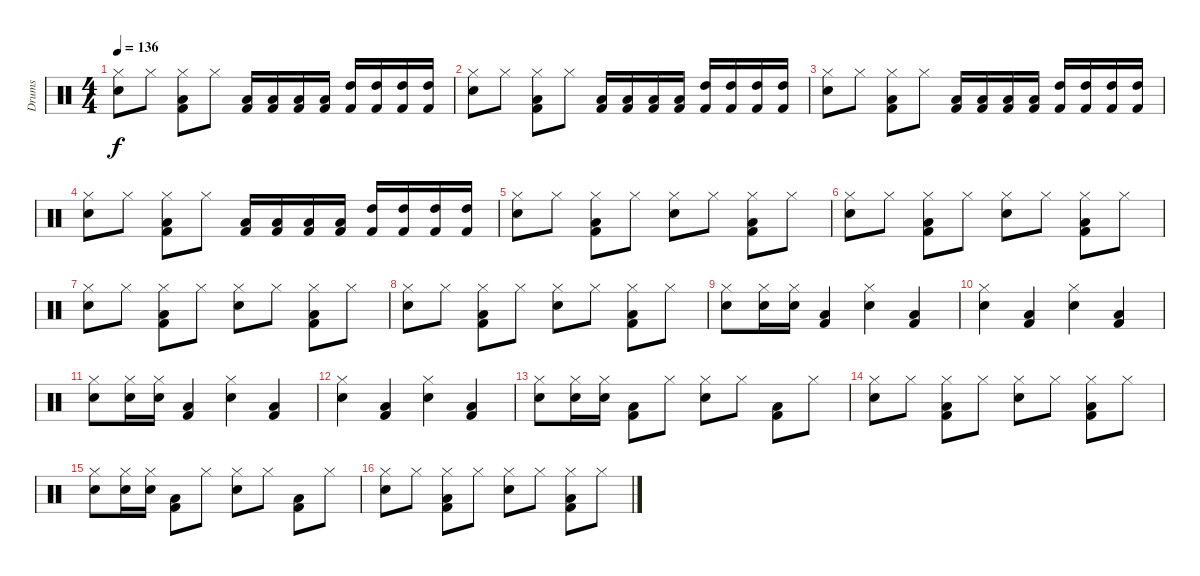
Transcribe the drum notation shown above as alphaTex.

\track ("Drums" "Drums") {instrument percussion}
\staff {score}
\articulation defaults
\ts (4 4)
\tempo 136
\clef neutral
\ks c
("Hi-Hat (closed)" "Snare (hit) 2").8{dy f} "Hi-Hat (closed)".8 ("Kick (hit) 2" "Low Floor Tom (hit)" "Hi-Hat (closed)").8 "Hi-Hat (closed)".8 ("Kick (hit) 2" "Low Floor Tom (hit)").16 ("Kick (hit) 2" "Low Floor Tom (hit)").16 ("Kick (hit) 2" "Low Floor Tom (hit)").16 ("Kick (hit) 2" "Low Floor Tom (hit)").16 ("Kick (hit) 2" "High Tom (hit)").16 ("Kick (hit) 2" "High Tom (hit)").16 ("Kick (hit) 2" "High Tom (hit)").16 ("Kick (hit) 2" "High Tom (hit)").16 |
("Hi-Hat (closed)" "Snare (hit) 2").8 "Hi-Hat (closed)".8 ("Kick (hit) 2" "Low Floor Tom (hit)" "Hi-Hat (closed)").8 "Hi-Hat (closed)".8 ("Kick (hit) 2" "Low Floor Tom (hit)").16 ("Kick (hit) 2" "Low Floor Tom (hit)").16 ("Kick (hit) 2" "Low Floor Tom (hit)").16 ("Kick (hit) 2" "Low Floor Tom (hit)").16 ("Kick (hit) 2" "High Tom (hit)").16 ("Kick (hit) 2" "High Tom (hit)").16 ("Kick (hit) 2" "High Tom (hit)").16 ("Kick (hit) 2" "High Tom (hit)").16 |
("Hi-Hat (closed)" "Snare (hit) 2").8 "Hi-Hat (closed)".8 ("Kick (hit) 2" "Low Floor Tom (hit)" "Hi-Hat (closed)").8 "Hi-Hat (closed)".8 ("Kick (hit) 2" "Low Floor Tom (hit)").16 ("Kick (hit) 2" "Low Floor Tom (hit)").16 ("Kick (hit) 2" "Low Floor Tom (hit)").16 ("Kick (hit) 2" "Low Floor Tom (hit)").16 ("Kick (hit) 2" "High Tom (hit)").16 ("Kick (hit) 2" "High Tom (hit)").16 ("Kick (hit) 2" "High Tom (hit)").16 ("Kick (hit) 2" "High Tom (hit)").16 |
("Hi-Hat (closed)" "Snare (hit) 2").8 "Hi-Hat (closed)".8 ("Kick (hit) 2" "Low Floor Tom (hit)" "Hi-Hat (closed)").8 "Hi-Hat (closed)".8 ("Kick (hit) 2" "Low Floor Tom (hit)").16 ("Kick (hit) 2" "Low Floor Tom (hit)").16 ("Kick (hit) 2" "Low Floor Tom (hit)").16 ("Kick (hit) 2" "Low Floor Tom (hit)").16 ("Kick (hit) 2" "High Tom (hit)").16 ("Kick (hit) 2" "High Tom (hit)").16 ("Kick (hit) 2" "High Tom (hit)").16 ("Kick (hit) 2" "High Tom (hit)").16 |
("Hi-Hat (closed)" "Snare (hit) 2").8 "Hi-Hat (closed)".8 ("Kick (hit) 2" "Low Floor Tom (hit)" "Hi-Hat (closed)").8 "Hi-Hat (closed)".8 ("Hi-Hat (closed)" "Snare (hit) 2").8 "Hi-Hat (closed)".8 ("Kick (hit) 2" "Low Floor Tom (hit)" "Hi-Hat (closed)").8 "Hi-Hat (closed)".8 |
("Hi-Hat (closed)" "Snare (hit) 2").8 "Hi-Hat (closed)".8 ("Kick (hit) 2" "Low Floor Tom (hit)" "Hi-Hat (closed)").8 "Hi-Hat (closed)".8 ("Hi-Hat (closed)" "Snare (hit) 2").8 "Hi-Hat (closed)".8 ("Kick (hit) 2" "Low Floor Tom (hit)" "Hi-Hat (closed)").8 "Hi-Hat (closed)".8 |
("Hi-Hat (closed)" "Snare (hit) 2").8 "Hi-Hat (closed)".8 ("Kick (hit) 2" "Low Floor Tom (hit)" "Hi-Hat (closed)").8 "Hi-Hat (closed)".8 ("Hi-Hat (closed)" "Snare (hit) 2").8 "Hi-Hat (closed)".8 ("Kick (hit) 2" "Low Floor Tom (hit)" "Hi-Hat (closed)").8 "Hi-Hat (closed)".8 |
("Hi-Hat (closed)" "Snare (hit) 2").8 "Hi-Hat (closed)".8 ("Kick (hit) 2" "Low Floor Tom (hit)" "Hi-Hat (closed)").8 "Hi-Hat (closed)".8 ("Hi-Hat (closed)" "Snare (hit) 2").8 "Hi-Hat (closed)".8 ("Kick (hit) 2" "Low Floor Tom (hit)" "Hi-Hat (closed)").8 "Hi-Hat (closed)".8 |
("Hi-Hat (closed)" "Snare (hit) 2").8 ("Hi-Hat (closed)" "Snare (hit) 2").16 ("Hi-Hat (closed)" "Snare (hit) 2").16 ("Kick (hit) 2" "Low Floor Tom (hit)").4 ("Hi-Hat (closed)" "Snare (hit) 2").4 ("Kick (hit) 2" "Low Floor Tom (hit)").4 |
("Hi-Hat (closed)" "Snare (hit) 2").4 ("Kick (hit) 2" "Low Floor Tom (hit)").4 ("Hi-Hat (closed)" "Snare (hit) 2").4 ("Kick (hit) 2" "Low Floor Tom (hit)").4 |
("Hi-Hat (closed)" "Snare (hit) 2").8 ("Hi-Hat (closed)" "Snare (hit) 2").16 ("Hi-Hat (closed)" "Snare (hit) 2").16 ("Kick (hit) 2" "Low Floor Tom (hit)").4 ("Hi-Hat (closed)" "Snare (hit) 2").4 ("Kick (hit) 2" "Low Floor Tom (hit)").4 |
("Hi-Hat (closed)" "Snare (hit) 2").4 ("Kick (hit) 2" "Low Floor Tom (hit)").4 ("Hi-Hat (closed)" "Snare (hit) 2").4 ("Kick (hit) 2" "Low Floor Tom (hit)").4 |
("Hi-Hat (closed)" "Snare (hit) 2").8 ("Hi-Hat (closed)" "Snare (hit) 2").16 ("Hi-Hat (closed)" "Snare (hit) 2").16 ("Kick (hit) 2" "Low Floor Tom (hit)").8 "Hi-Hat (closed)".8 ("Hi-Hat (closed)" "Snare (hit) 2").8 "Hi-Hat (closed)".8 ("Kick (hit) 2" "Low Floor Tom (hit)").8 "Hi-Hat (closed)".8 |
("Hi-Hat (closed)" "Snare (hit) 2").8 "Hi-Hat (closed)".8 ("Kick (hit) 2" "Low Floor Tom (hit)" "Hi-Hat (closed)").8 "Hi-Hat (closed)".8 ("Hi-Hat (closed)" "Snare (hit) 2").8 "Hi-Hat (closed)".8 ("Kick (hit) 2" "Low Floor Tom (hit)" "Hi-Hat (closed)").8 "Hi-Hat (closed)".8 |
("Hi-Hat (closed)" "Snare (hit) 2").8 ("Hi-Hat (closed)" "Snare (hit) 2").16 ("Hi-Hat (closed)" "Snare (hit) 2").16 ("Kick (hit) 2" "Low Floor Tom (hit)").8 "Hi-Hat (closed)".8 ("Hi-Hat (closed)" "Snare (hit) 2").8 "Hi-Hat (closed)".8 ("Kick (hit) 2" "Low Floor Tom (hit)").8 "Hi-Hat (closed)".8 |
("Hi-Hat (closed)" "Snare (hit) 2").8 "Hi-Hat (closed)".8 ("Kick (hit) 2" "Low Floor Tom (hit)" "Hi-Hat (closed)").8 "Hi-Hat (closed)".8 ("Hi-Hat (closed)" "Snare (hit) 2").8 "Hi-Hat (closed)".8 ("Kick (hit) 2" "Low Floor Tom (hit)" "Hi-Hat (closed)").8 "Hi-Hat (closed)".8
